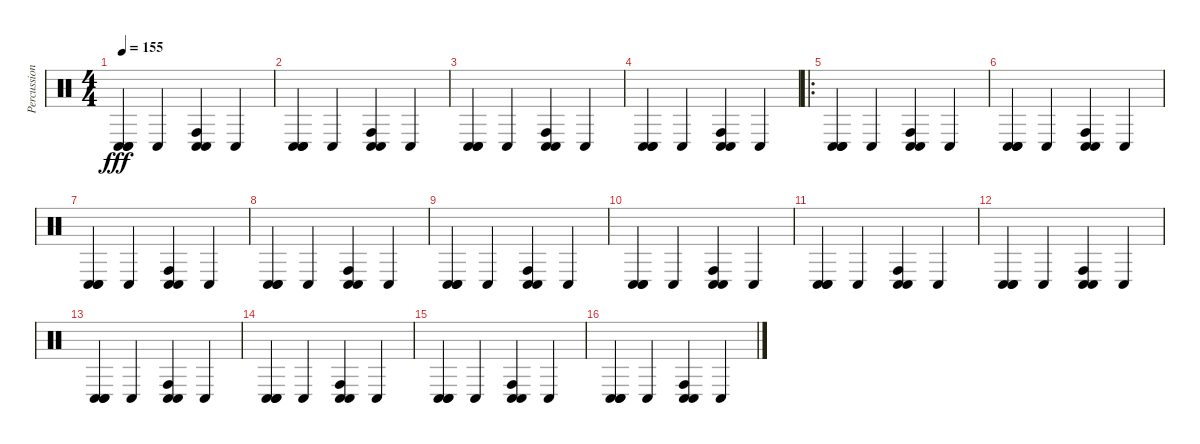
\track ("Percussion" "Percussion") {instrument percussion}
\staff {score}
\articulation defaults
\ts (4 4)
\tempo 155
\clef neutral
\ks c
("Conga low (hit)" "Conga low (hit)" "Conga low (hit)").4{dy fff} "Conga low (hit)".4 ("Conga high (hit)" "Conga low (hit)" "Conga low (hit)").4 "Conga low (hit)".4 |
("Conga low (hit)" "Conga low (hit)" "Conga low (hit)").4 "Conga low (hit)".4 ("Conga high (hit)" "Conga low (hit)" "Conga low (hit)").4 "Conga low (hit)".4 |
("Conga low (hit)" "Conga low (hit)" "Conga low (hit)").4 "Conga low (hit)".4 ("Conga high (hit)" "Conga low (hit)" "Conga low (hit)").4 "Conga low (hit)".4 |
("Conga low (hit)" "Conga low (hit)" "Conga low (hit)").4 "Conga low (hit)".4 ("Conga high (hit)" "Conga low (hit)" "Conga low (hit)").4 "Conga low (hit)".4 |
\ro
("Conga low (hit)" "Conga low (hit)" "Conga low (hit)").4 "Conga low (hit)".4 ("Conga high (hit)" "Conga low (hit)" "Conga low (hit)").4 "Conga low (hit)".4 |
("Conga low (hit)" "Conga low (hit)" "Conga low (hit)").4 "Conga low (hit)".4 ("Conga high (hit)" "Conga low (hit)" "Conga low (hit)").4 "Conga low (hit)".4 |
("Conga low (hit)" "Conga low (hit)" "Conga low (hit)").4 "Conga low (hit)".4 ("Conga high (hit)" "Conga low (hit)" "Conga low (hit)").4 "Conga low (hit)".4 |
("Conga low (hit)" "Conga low (hit)" "Conga low (hit)").4 "Conga low (hit)".4 ("Conga high (hit)" "Conga low (hit)" "Conga low (hit)").4 "Conga low (hit)".4 |
("Conga low (hit)" "Conga low (hit)" "Conga low (hit)").4 "Conga low (hit)".4 ("Conga high (hit)" "Conga low (hit)" "Conga low (hit)").4 "Conga low (hit)".4 |
("Conga low (hit)" "Conga low (hit)" "Conga low (hit)").4 "Conga low (hit)".4 ("Conga high (hit)" "Conga low (hit)" "Conga low (hit)").4 "Conga low (hit)".4 |
("Conga low (hit)" "Conga low (hit)" "Conga low (hit)").4 "Conga low (hit)".4 ("Conga high (hit)" "Conga low (hit)" "Conga low (hit)").4 "Conga low (hit)".4 |
("Conga low (hit)" "Conga low (hit)" "Conga low (hit)").4 "Conga low (hit)".4 ("Conga high (hit)" "Conga low (hit)" "Conga low (hit)").4 "Conga low (hit)".4 |
("Conga low (hit)" "Conga low (hit)" "Conga low (hit)").4 "Conga low (hit)".4 ("Conga high (hit)" "Conga low (hit)" "Conga low (hit)").4 "Conga low (hit)".4 |
("Conga low (hit)" "Conga low (hit)" "Conga low (hit)").4 "Conga low (hit)".4 ("Conga high (hit)" "Conga low (hit)" "Conga low (hit)").4 "Conga low (hit)".4 |
("Conga low (hit)" "Conga low (hit)" "Conga low (hit)").4 "Conga low (hit)".4 ("Conga high (hit)" "Conga low (hit)" "Conga low (hit)").4 "Conga low (hit)".4 |
("Conga low (hit)" "Conga low (hit)" "Conga low (hit)").4 "Conga low (hit)".4 ("Conga high (hit)" "Conga low (hit)" "Conga low (hit)").4 "Conga low (hit)".4
